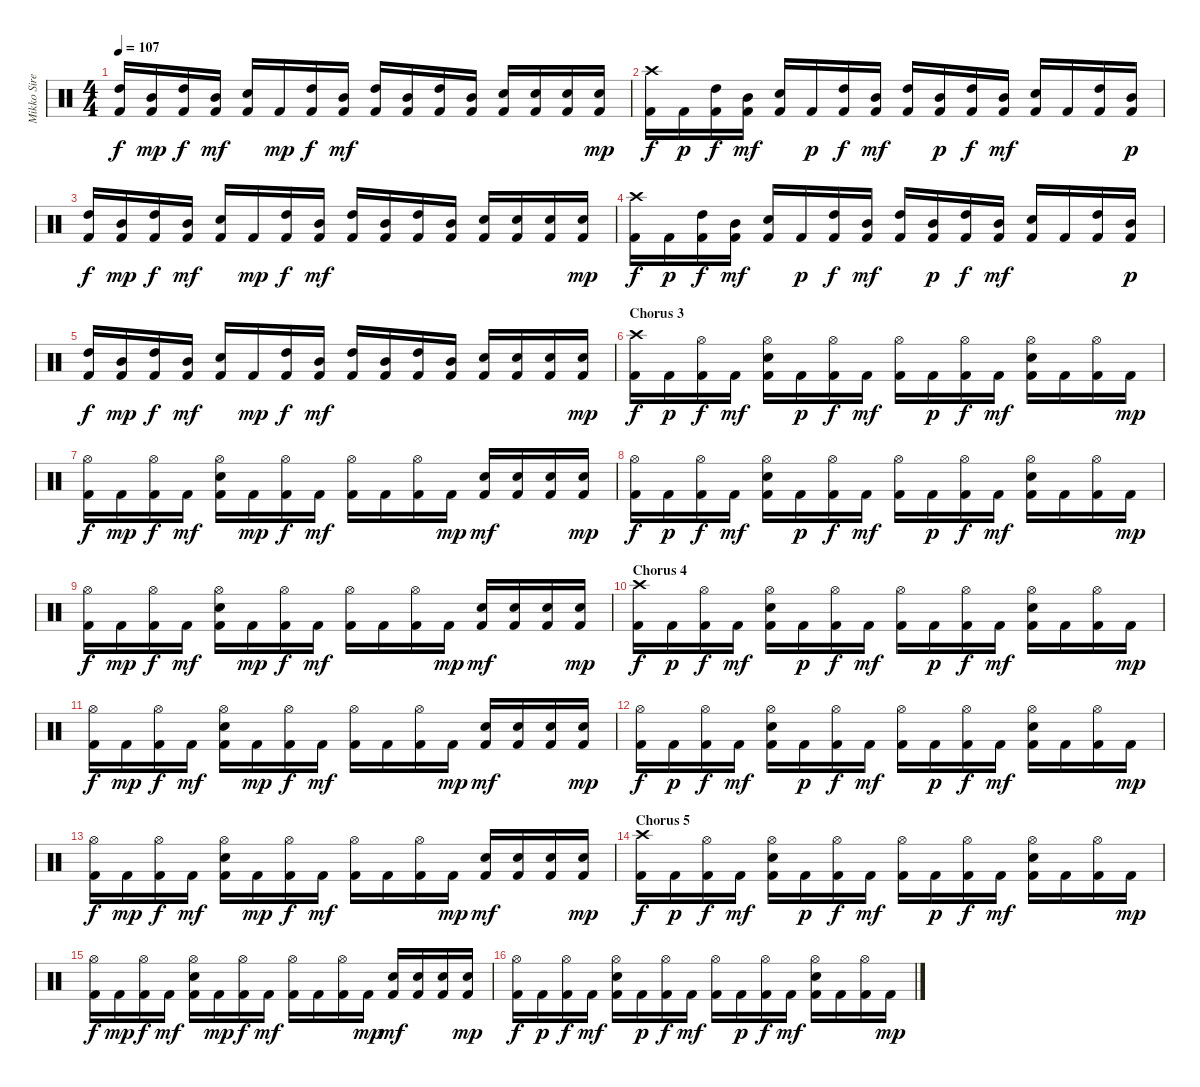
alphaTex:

\track ("Mikko Siren" "Mikko Sire") {instrument percussion}
\staff {score}
\articulation defaults
\ts (4 4)
\tempo 107
\clef neutral
\ks c
("Kick (hit) 2" "High Tom (hit)").16{dy f} ("Kick (hit) 2" "Mid Tom (hit)").16{dy mp} ("Kick (hit) 2" "High Tom (hit)").16{dy f} ("Kick (hit) 2" "Mid Tom (hit)").16{dy mf} ("Kick (hit) 2" "Electric Snare (hit)").16 "Kick (hit) 2".16{dy mp} ("Kick (hit) 2" "High Tom (hit)").16{dy f} ("Kick (hit) 2" "Mid Tom (hit)").16{dy mf} ("Kick (hit) 2" "High Tom (hit)").16 ("Kick (hit) 2" "Mid Tom (hit)").16 ("Kick (hit) 2" "High Tom (hit)").16 ("Kick (hit) 2" "Mid Tom (hit)").16 ("Kick (hit) 2" "Electric Snare (hit)").16 ("Kick (hit) 2" "Electric Snare (hit)").16 ("Kick (hit) 2" "Electric Snare (hit)").16 ("Kick (hit) 2" "Electric Snare (hit)").16{dy mp} |
("Kick (hit) 2" "Crash high (hit)").16{dy f} "Kick (hit) 2".16{dy p} ("Kick (hit) 2" "High Tom (hit)").16{dy f} ("Kick (hit) 2" "Mid Tom (hit)").16{dy mf} ("Kick (hit) 2" "Electric Snare (hit)").16 "Kick (hit) 2".16{dy p} ("Kick (hit) 2" "High Tom (hit)").16{dy f} ("Kick (hit) 2" "Mid Tom (hit)").16{dy mf} ("Kick (hit) 2" "High Tom (hit)").16 ("Kick (hit) 2" "Mid Tom (hit)").16{dy p} ("Kick (hit) 2" "High Tom (hit)").16{dy f} ("Kick (hit) 2" "Mid Tom (hit)").16{dy mf} ("Kick (hit) 2" "Electric Snare (hit)").16 "Kick (hit) 2".16 ("Kick (hit) 2" "High Tom (hit)").16 ("Kick (hit) 2" "Mid Tom (hit)").16{dy p} |
("Kick (hit) 2" "High Tom (hit)").16{dy f} ("Kick (hit) 2" "Mid Tom (hit)").16{dy mp} ("Kick (hit) 2" "High Tom (hit)").16{dy f} ("Kick (hit) 2" "Mid Tom (hit)").16{dy mf} ("Kick (hit) 2" "Electric Snare (hit)").16 "Kick (hit) 2".16{dy mp} ("Kick (hit) 2" "High Tom (hit)").16{dy f} ("Kick (hit) 2" "Mid Tom (hit)").16{dy mf} ("Kick (hit) 2" "High Tom (hit)").16 ("Kick (hit) 2" "Mid Tom (hit)").16 ("Kick (hit) 2" "High Tom (hit)").16 ("Kick (hit) 2" "Mid Tom (hit)").16 ("Kick (hit) 2" "Electric Snare (hit)").16 ("Kick (hit) 2" "Electric Snare (hit)").16 ("Kick (hit) 2" "Electric Snare (hit)").16 ("Kick (hit) 2" "Electric Snare (hit)").16{dy mp} |
("Kick (hit) 2" "Crash high (hit)").16{dy f} "Kick (hit) 2".16{dy p} ("Kick (hit) 2" "High Tom (hit)").16{dy f} ("Kick (hit) 2" "Mid Tom (hit)").16{dy mf} ("Kick (hit) 2" "Electric Snare (hit)").16 "Kick (hit) 2".16{dy p} ("Kick (hit) 2" "High Tom (hit)").16{dy f} ("Kick (hit) 2" "Mid Tom (hit)").16{dy mf} ("Kick (hit) 2" "High Tom (hit)").16 ("Kick (hit) 2" "Mid Tom (hit)").16{dy p} ("Kick (hit) 2" "High Tom (hit)").16{dy f} ("Kick (hit) 2" "Mid Tom (hit)").16{dy mf} ("Kick (hit) 2" "Electric Snare (hit)").16 "Kick (hit) 2".16 ("Kick (hit) 2" "High Tom (hit)").16 ("Kick (hit) 2" "Mid Tom (hit)").16{dy p} |
("Kick (hit) 2" "High Tom (hit)").16{dy f} ("Kick (hit) 2" "Mid Tom (hit)").16{dy mp} ("Kick (hit) 2" "High Tom (hit)").16{dy f} ("Kick (hit) 2" "Mid Tom (hit)").16{dy mf} ("Kick (hit) 2" "Electric Snare (hit)").16 "Kick (hit) 2".16{dy mp} ("Kick (hit) 2" "High Tom (hit)").16{dy f} ("Kick (hit) 2" "Mid Tom (hit)").16{dy mf} ("Kick (hit) 2" "High Tom (hit)").16 ("Kick (hit) 2" "Mid Tom (hit)").16 ("Kick (hit) 2" "High Tom (hit)").16 ("Kick (hit) 2" "Mid Tom (hit)").16 ("Kick (hit) 2" "Electric Snare (hit)").16 ("Kick (hit) 2" "Electric Snare (hit)").16 ("Kick (hit) 2" "Electric Snare (hit)").16 ("Kick (hit) 2" "Electric Snare (hit)").16{dy mp} |
\section ("" "Chorus 3")
("Kick (hit) 2" "Crash high (hit)").16{dy f} "Kick (hit) 2".16{dy p} ("Kick (hit) 2" "Hi-Hat (open)").16{dy f} "Kick (hit) 2".16{dy mf} ("Kick (hit) 2" "Electric Snare (hit)" "Hi-Hat (open)").16 "Kick (hit) 2".16{dy p} ("Kick (hit) 2" "Hi-Hat (open)").16{dy f} "Kick (hit) 2".16{dy mf} ("Kick (hit) 2" "Hi-Hat (open)").16 "Kick (hit) 2".16{dy p} ("Kick (hit) 2" "Hi-Hat (open)").16{dy f} "Kick (hit) 2".16{dy mf} ("Kick (hit) 2" "Electric Snare (hit)" "Hi-Hat (open)").16 "Kick (hit) 2".16 ("Kick (hit) 2" "Hi-Hat (open)").16 "Kick (hit) 2".16{dy mp} |
("Kick (hit) 2" "Hi-Hat (open)").16{dy f} "Kick (hit) 2".16{dy mp} ("Kick (hit) 2" "Hi-Hat (open)").16{dy f} "Kick (hit) 2".16{dy mf} ("Kick (hit) 2" "Electric Snare (hit)" "Hi-Hat (open)").16 "Kick (hit) 2".16{dy mp} ("Kick (hit) 2" "Hi-Hat (open)").16{dy f} "Kick (hit) 2".16{dy mf} ("Kick (hit) 2" "Hi-Hat (open)").16 "Kick (hit) 2".16 ("Kick (hit) 2" "Hi-Hat (open)").16 "Kick (hit) 2".16{dy mp} ("Kick (hit) 2" "Electric Snare (hit)").16{dy mf} ("Kick (hit) 2" "Electric Snare (hit)").16 ("Kick (hit) 2" "Electric Snare (hit)").16 ("Kick (hit) 2" "Electric Snare (hit)").16{dy mp} |
("Kick (hit) 2" "Hi-Hat (open)").16{dy f} "Kick (hit) 2".16{dy p} ("Kick (hit) 2" "Hi-Hat (open)").16{dy f} "Kick (hit) 2".16{dy mf} ("Kick (hit) 2" "Electric Snare (hit)" "Hi-Hat (open)").16 "Kick (hit) 2".16{dy p} ("Kick (hit) 2" "Hi-Hat (open)").16{dy f} "Kick (hit) 2".16{dy mf} ("Kick (hit) 2" "Hi-Hat (open)").16 "Kick (hit) 2".16{dy p} ("Kick (hit) 2" "Hi-Hat (open)").16{dy f} "Kick (hit) 2".16{dy mf} ("Kick (hit) 2" "Electric Snare (hit)" "Hi-Hat (open)").16 "Kick (hit) 2".16 ("Kick (hit) 2" "Hi-Hat (open)").16 "Kick (hit) 2".16{dy mp} |
("Kick (hit) 2" "Hi-Hat (open)").16{dy f} "Kick (hit) 2".16{dy mp} ("Kick (hit) 2" "Hi-Hat (open)").16{dy f} "Kick (hit) 2".16{dy mf} ("Kick (hit) 2" "Electric Snare (hit)" "Hi-Hat (open)").16 "Kick (hit) 2".16{dy mp} ("Kick (hit) 2" "Hi-Hat (open)").16{dy f} "Kick (hit) 2".16{dy mf} ("Kick (hit) 2" "Hi-Hat (open)").16 "Kick (hit) 2".16 ("Kick (hit) 2" "Hi-Hat (open)").16 "Kick (hit) 2".16{dy mp} ("Kick (hit) 2" "Electric Snare (hit)").16{dy mf} ("Kick (hit) 2" "Electric Snare (hit)").16 ("Kick (hit) 2" "Electric Snare (hit)").16 ("Kick (hit) 2" "Electric Snare (hit)").16{dy mp} |
\section ("" "Chorus 4")
("Kick (hit) 2" "Crash high (hit)").16{dy f} "Kick (hit) 2".16{dy p} ("Kick (hit) 2" "Hi-Hat (open)").16{dy f} "Kick (hit) 2".16{dy mf} ("Kick (hit) 2" "Electric Snare (hit)" "Hi-Hat (open)").16 "Kick (hit) 2".16{dy p} ("Kick (hit) 2" "Hi-Hat (open)").16{dy f} "Kick (hit) 2".16{dy mf} ("Kick (hit) 2" "Hi-Hat (open)").16 "Kick (hit) 2".16{dy p} ("Kick (hit) 2" "Hi-Hat (open)").16{dy f} "Kick (hit) 2".16{dy mf} ("Kick (hit) 2" "Electric Snare (hit)" "Hi-Hat (open)").16 "Kick (hit) 2".16 ("Kick (hit) 2" "Hi-Hat (open)").16 "Kick (hit) 2".16{dy mp} |
("Kick (hit) 2" "Hi-Hat (open)").16{dy f} "Kick (hit) 2".16{dy mp} ("Kick (hit) 2" "Hi-Hat (open)").16{dy f} "Kick (hit) 2".16{dy mf} ("Kick (hit) 2" "Electric Snare (hit)" "Hi-Hat (open)").16 "Kick (hit) 2".16{dy mp} ("Kick (hit) 2" "Hi-Hat (open)").16{dy f} "Kick (hit) 2".16{dy mf} ("Kick (hit) 2" "Hi-Hat (open)").16 "Kick (hit) 2".16 ("Kick (hit) 2" "Hi-Hat (open)").16 "Kick (hit) 2".16{dy mp} ("Kick (hit) 2" "Electric Snare (hit)").16{dy mf} ("Kick (hit) 2" "Electric Snare (hit)").16 ("Kick (hit) 2" "Electric Snare (hit)").16 ("Kick (hit) 2" "Electric Snare (hit)").16{dy mp} |
("Kick (hit) 2" "Hi-Hat (open)").16{dy f} "Kick (hit) 2".16{dy p} ("Kick (hit) 2" "Hi-Hat (open)").16{dy f} "Kick (hit) 2".16{dy mf} ("Kick (hit) 2" "Electric Snare (hit)" "Hi-Hat (open)").16 "Kick (hit) 2".16{dy p} ("Kick (hit) 2" "Hi-Hat (open)").16{dy f} "Kick (hit) 2".16{dy mf} ("Kick (hit) 2" "Hi-Hat (open)").16 "Kick (hit) 2".16{dy p} ("Kick (hit) 2" "Hi-Hat (open)").16{dy f} "Kick (hit) 2".16{dy mf} ("Kick (hit) 2" "Electric Snare (hit)" "Hi-Hat (open)").16 "Kick (hit) 2".16 ("Kick (hit) 2" "Hi-Hat (open)").16 "Kick (hit) 2".16{dy mp} |
("Kick (hit) 2" "Hi-Hat (open)").16{dy f} "Kick (hit) 2".16{dy mp} ("Kick (hit) 2" "Hi-Hat (open)").16{dy f} "Kick (hit) 2".16{dy mf} ("Kick (hit) 2" "Electric Snare (hit)" "Hi-Hat (open)").16 "Kick (hit) 2".16{dy mp} ("Kick (hit) 2" "Hi-Hat (open)").16{dy f} "Kick (hit) 2".16{dy mf} ("Kick (hit) 2" "Hi-Hat (open)").16 "Kick (hit) 2".16 ("Kick (hit) 2" "Hi-Hat (open)").16 "Kick (hit) 2".16{dy mp} ("Kick (hit) 2" "Electric Snare (hit)").16{dy mf} ("Kick (hit) 2" "Electric Snare (hit)").16 ("Kick (hit) 2" "Electric Snare (hit)").16 ("Kick (hit) 2" "Electric Snare (hit)").16{dy mp} |
\section ("" "Chorus 5")
("Kick (hit) 2" "Crash high (hit)").16{dy f} "Kick (hit) 2".16{dy p} ("Kick (hit) 2" "Hi-Hat (open)").16{dy f} "Kick (hit) 2".16{dy mf} ("Kick (hit) 2" "Electric Snare (hit)" "Hi-Hat (open)").16 "Kick (hit) 2".16{dy p} ("Kick (hit) 2" "Hi-Hat (open)").16{dy f} "Kick (hit) 2".16{dy mf} ("Kick (hit) 2" "Hi-Hat (open)").16 "Kick (hit) 2".16{dy p} ("Kick (hit) 2" "Hi-Hat (open)").16{dy f} "Kick (hit) 2".16{dy mf} ("Kick (hit) 2" "Electric Snare (hit)" "Hi-Hat (open)").16 "Kick (hit) 2".16 ("Kick (hit) 2" "Hi-Hat (open)").16 "Kick (hit) 2".16{dy mp} |
("Kick (hit) 2" "Hi-Hat (open)").16{dy f} "Kick (hit) 2".16{dy mp} ("Kick (hit) 2" "Hi-Hat (open)").16{dy f} "Kick (hit) 2".16{dy mf} ("Kick (hit) 2" "Electric Snare (hit)" "Hi-Hat (open)").16 "Kick (hit) 2".16{dy mp} ("Kick (hit) 2" "Hi-Hat (open)").16{dy f} "Kick (hit) 2".16{dy mf} ("Kick (hit) 2" "Hi-Hat (open)").16 "Kick (hit) 2".16 ("Kick (hit) 2" "Hi-Hat (open)").16 "Kick (hit) 2".16{dy mp} ("Kick (hit) 2" "Electric Snare (hit)").16{dy mf} ("Kick (hit) 2" "Electric Snare (hit)").16 ("Kick (hit) 2" "Electric Snare (hit)").16 ("Kick (hit) 2" "Electric Snare (hit)").16{dy mp} |
("Kick (hit) 2" "Hi-Hat (open)").16{dy f} "Kick (hit) 2".16{dy p} ("Kick (hit) 2" "Hi-Hat (open)").16{dy f} "Kick (hit) 2".16{dy mf} ("Kick (hit) 2" "Electric Snare (hit)" "Hi-Hat (open)").16 "Kick (hit) 2".16{dy p} ("Kick (hit) 2" "Hi-Hat (open)").16{dy f} "Kick (hit) 2".16{dy mf} ("Kick (hit) 2" "Hi-Hat (open)").16 "Kick (hit) 2".16{dy p} ("Kick (hit) 2" "Hi-Hat (open)").16{dy f} "Kick (hit) 2".16{dy mf} ("Kick (hit) 2" "Electric Snare (hit)" "Hi-Hat (open)").16 "Kick (hit) 2".16 ("Kick (hit) 2" "Hi-Hat (open)").16 "Kick (hit) 2".16{dy mp}
